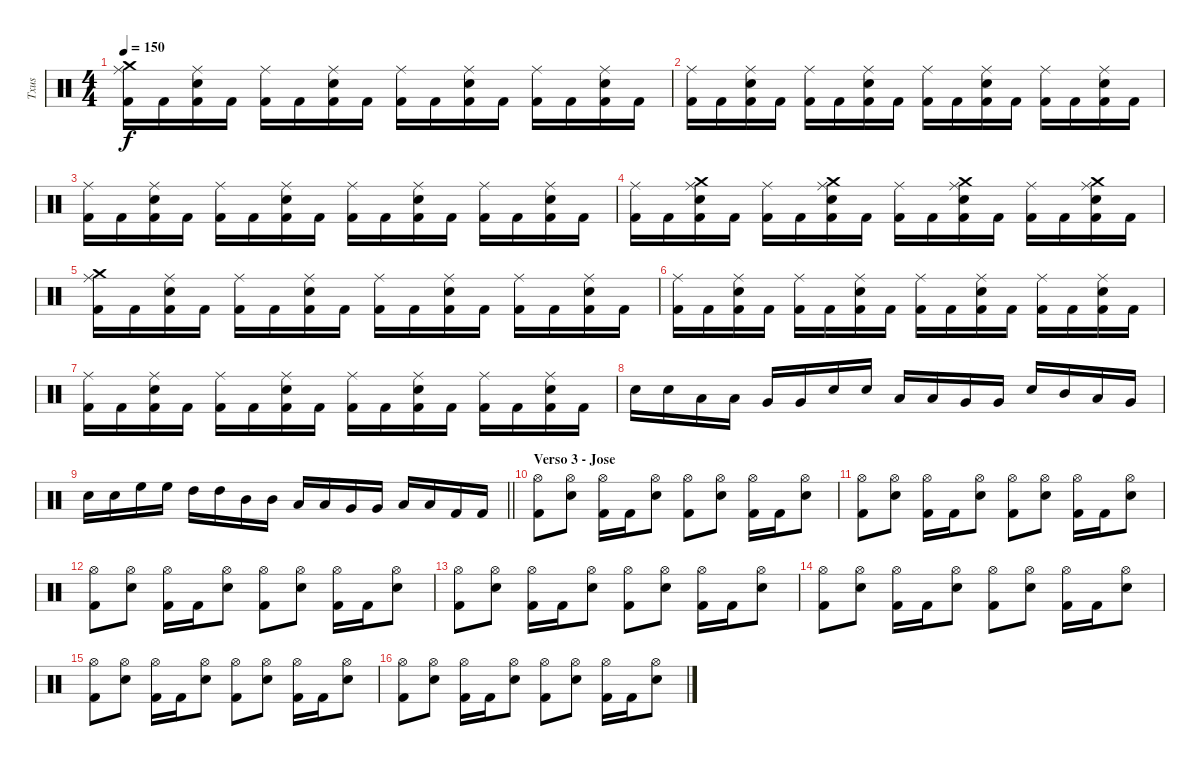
\track ("Txus" "Txus") {instrument percussion}
\staff {score}
\articulation defaults
\ts (4 4)
\tempo 150
\clef neutral
\ks c
("Crash medium (hit)" "Ride (middle)" "Kick (hit) 2").16{dy f} "Kick (hit) 2".16 ("Ride (middle)" "Electric Snare (hit)" "Kick (hit) 2").16 "Kick (hit) 2".16 ("Ride (middle)" "Kick (hit) 2").16 "Kick (hit) 2".16 ("Ride (middle)" "Electric Snare (hit)" "Kick (hit) 2").16 "Kick (hit) 2".16 ("Ride (middle)" "Kick (hit) 2").16 "Kick (hit) 2".16 ("Ride (middle)" "Electric Snare (hit)" "Kick (hit) 2").16 "Kick (hit) 2".16 ("Ride (middle)" "Kick (hit) 2").16 "Kick (hit) 2".16 ("Ride (middle)" "Electric Snare (hit)" "Kick (hit) 2").16 "Kick (hit) 2".16 |
("Ride (middle)" "Kick (hit) 2").16 "Kick (hit) 2".16 ("Ride (middle)" "Electric Snare (hit)" "Kick (hit) 2").16 "Kick (hit) 2".16 ("Ride (middle)" "Kick (hit) 2").16 "Kick (hit) 2".16 ("Ride (middle)" "Electric Snare (hit)" "Kick (hit) 2").16 "Kick (hit) 2".16 ("Ride (middle)" "Kick (hit) 2").16 "Kick (hit) 2".16 ("Ride (middle)" "Electric Snare (hit)" "Kick (hit) 2").16 "Kick (hit) 2".16 ("Ride (middle)" "Kick (hit) 2").16 "Kick (hit) 2".16 ("Ride (middle)" "Electric Snare (hit)" "Kick (hit) 2").16 "Kick (hit) 2".16 |
("Ride (middle)" "Kick (hit) 2").16 "Kick (hit) 2".16 ("Ride (middle)" "Electric Snare (hit)" "Kick (hit) 2").16 "Kick (hit) 2".16 ("Ride (middle)" "Kick (hit) 2").16 "Kick (hit) 2".16 ("Ride (middle)" "Electric Snare (hit)" "Kick (hit) 2").16 "Kick (hit) 2".16 ("Ride (middle)" "Kick (hit) 2").16 "Kick (hit) 2".16 ("Ride (middle)" "Electric Snare (hit)" "Kick (hit) 2").16 "Kick (hit) 2".16 ("Ride (middle)" "Kick (hit) 2").16 "Kick (hit) 2".16 ("Ride (middle)" "Electric Snare (hit)" "Kick (hit) 2").16 "Kick (hit) 2".16 |
("Ride (middle)" "Kick (hit) 2").16 "Kick (hit) 2".16 ("Crash medium (hit)" "Ride (middle)" "Electric Snare (hit)" "Kick (hit) 2").16 "Kick (hit) 2".16 ("Ride (middle)" "Kick (hit) 2").16 "Kick (hit) 2".16 ("Crash medium (hit)" "Ride (middle)" "Electric Snare (hit)" "Kick (hit) 2").16 "Kick (hit) 2".16 ("Ride (middle)" "Kick (hit) 2").16 "Kick (hit) 2".16 ("Crash medium (hit)" "Ride (middle)" "Electric Snare (hit)" "Kick (hit) 2").16 "Kick (hit) 2".16 ("Ride (middle)" "Kick (hit) 2").16 "Kick (hit) 2".16 ("Crash medium (hit)" "Ride (middle)" "Electric Snare (hit)" "Kick (hit) 2").16 "Kick (hit) 2".16 |
("Crash medium (hit)" "Ride (middle)" "Kick (hit) 2").16 "Kick (hit) 2".16 ("Ride (middle)" "Electric Snare (hit)" "Kick (hit) 2").16 "Kick (hit) 2".16 ("Ride (middle)" "Kick (hit) 2").16 "Kick (hit) 2".16 ("Ride (middle)" "Electric Snare (hit)" "Kick (hit) 2").16 "Kick (hit) 2".16 ("Ride (middle)" "Kick (hit) 2").16 "Kick (hit) 2".16 ("Ride (middle)" "Electric Snare (hit)" "Kick (hit) 2").16 "Kick (hit) 2".16 ("Ride (middle)" "Kick (hit) 2").16 "Kick (hit) 2".16 ("Ride (middle)" "Electric Snare (hit)" "Kick (hit) 2").16 "Kick (hit) 2".16 |
("Ride (middle)" "Kick (hit) 2").16 "Kick (hit) 2".16 ("Ride (middle)" "Electric Snare (hit)" "Kick (hit) 2").16 "Kick (hit) 2".16 ("Ride (middle)" "Kick (hit) 2").16 "Kick (hit) 2".16 ("Ride (middle)" "Electric Snare (hit)" "Kick (hit) 2").16 "Kick (hit) 2".16 ("Ride (middle)" "Kick (hit) 2").16 "Kick (hit) 2".16 ("Ride (middle)" "Electric Snare (hit)" "Kick (hit) 2").16 "Kick (hit) 2".16 ("Ride (middle)" "Kick (hit) 2").16 "Kick (hit) 2".16 ("Ride (middle)" "Electric Snare (hit)" "Kick (hit) 2").16 "Kick (hit) 2".16 |
("Ride (middle)" "Kick (hit) 2").16 "Kick (hit) 2".16 ("Ride (middle)" "Electric Snare (hit)" "Kick (hit) 2").16 "Kick (hit) 2".16 ("Ride (middle)" "Kick (hit) 2").16 "Kick (hit) 2".16 ("Ride (middle)" "Electric Snare (hit)" "Kick (hit) 2").16 "Kick (hit) 2".16 ("Ride (middle)" "Kick (hit) 2").16 "Kick (hit) 2".16 ("Ride (middle)" "Electric Snare (hit)" "Kick (hit) 2").16 "Kick (hit) 2".16 ("Ride (middle)" "Kick (hit) 2").16 "Kick (hit) 2".16 ("Ride (middle)" "Electric Snare (hit)" "Kick (hit) 2").16 "Kick (hit) 2".16 |
"Electric Snare (hit)".16 "Electric Snare (hit)".16 "Low Tom (hit)".16 "Low Tom (hit)".16 "Very Low Tom (hit)".16 "Very Low Tom (hit)".16 "Electric Snare (hit)".16 "Electric Snare (hit)".16 "Low Tom (hit)".16 "Low Tom (hit)".16 "Very Low Tom (hit)".16 "Very Low Tom (hit)".16 "Electric Snare (hit)".16 "Mid Tom (hit)".16 "Low Tom (hit)".16 "Very Low Tom (hit)".16 |
\barLineRight lightlight "Electric Snare (hit)".16 "Electric Snare (hit)".16 "High Floor Tom (hit)".16 "High Floor Tom (hit)".16 "High Tom (hit)".16 "High Tom (hit)".16 "Mid Tom (hit)".16 "Mid Tom (hit)".16 "Low Tom (hit)".16 "Low Tom (hit)".16 "Very Low Tom (hit)".16 "Very Low Tom (hit)".16 "Low Floor Tom (hit)".16 "Low Floor Tom (hit)".16 "Kick (hit) 2".16 "Kick (hit) 2".16
|
\section ("" "Verso 3 - Jose")
("Hi-Hat (open)" "Kick (hit) 2").8 ("Hi-Hat (open)" "Electric Snare (hit)").8 ("Hi-Hat (open)" "Kick (hit) 2").16 "Kick (hit) 2".16 ("Hi-Hat (open)" "Electric Snare (hit)").8 ("Hi-Hat (open)" "Kick (hit) 2").8 ("Hi-Hat (open)" "Electric Snare (hit)").8 ("Hi-Hat (open)" "Kick (hit) 2").16 "Kick (hit) 2".16 ("Hi-Hat (open)" "Electric Snare (hit)").8 |
("Hi-Hat (open)" "Kick (hit) 2").8 ("Hi-Hat (open)" "Electric Snare (hit)").8 ("Hi-Hat (open)" "Kick (hit) 2").16 "Kick (hit) 2".16 ("Hi-Hat (open)" "Electric Snare (hit)").8 ("Hi-Hat (open)" "Kick (hit) 2").8 ("Hi-Hat (open)" "Electric Snare (hit)").8 ("Hi-Hat (open)" "Kick (hit) 2").16 "Kick (hit) 2".16 ("Hi-Hat (open)" "Electric Snare (hit)").8 |
("Hi-Hat (open)" "Kick (hit) 2").8 ("Hi-Hat (open)" "Electric Snare (hit)").8 ("Hi-Hat (open)" "Kick (hit) 2").16 "Kick (hit) 2".16 ("Hi-Hat (open)" "Electric Snare (hit)").8 ("Hi-Hat (open)" "Kick (hit) 2").8 ("Hi-Hat (open)" "Electric Snare (hit)").8 ("Hi-Hat (open)" "Kick (hit) 2").16 "Kick (hit) 2".16 ("Hi-Hat (open)" "Electric Snare (hit)").8 |
("Hi-Hat (open)" "Kick (hit) 2").8 ("Hi-Hat (open)" "Electric Snare (hit)").8 ("Hi-Hat (open)" "Kick (hit) 2").16 "Kick (hit) 2".16 ("Hi-Hat (open)" "Electric Snare (hit)").8 ("Hi-Hat (open)" "Kick (hit) 2").8 ("Hi-Hat (open)" "Electric Snare (hit)").8 ("Hi-Hat (open)" "Kick (hit) 2").16 "Kick (hit) 2".16 ("Hi-Hat (open)" "Electric Snare (hit)").8 |
("Hi-Hat (open)" "Kick (hit) 2").8 ("Hi-Hat (open)" "Electric Snare (hit)").8 ("Hi-Hat (open)" "Kick (hit) 2").16 "Kick (hit) 2".16 ("Hi-Hat (open)" "Electric Snare (hit)").8 ("Hi-Hat (open)" "Kick (hit) 2").8 ("Hi-Hat (open)" "Electric Snare (hit)").8 ("Hi-Hat (open)" "Kick (hit) 2").16 "Kick (hit) 2".16 ("Hi-Hat (open)" "Electric Snare (hit)").8 |
("Hi-Hat (open)" "Kick (hit) 2").8 ("Hi-Hat (open)" "Electric Snare (hit)").8 ("Hi-Hat (open)" "Kick (hit) 2").16 "Kick (hit) 2".16 ("Hi-Hat (open)" "Electric Snare (hit)").8 ("Hi-Hat (open)" "Kick (hit) 2").8 ("Hi-Hat (open)" "Electric Snare (hit)").8 ("Hi-Hat (open)" "Kick (hit) 2").16 "Kick (hit) 2".16 ("Hi-Hat (open)" "Electric Snare (hit)").8 |
("Hi-Hat (open)" "Kick (hit) 2").8 ("Hi-Hat (open)" "Electric Snare (hit)").8 ("Hi-Hat (open)" "Kick (hit) 2").16 "Kick (hit) 2".16 ("Hi-Hat (open)" "Electric Snare (hit)").8 ("Hi-Hat (open)" "Kick (hit) 2").8 ("Hi-Hat (open)" "Electric Snare (hit)").8 ("Hi-Hat (open)" "Kick (hit) 2").16 "Kick (hit) 2".16 ("Hi-Hat (open)" "Electric Snare (hit)").8
